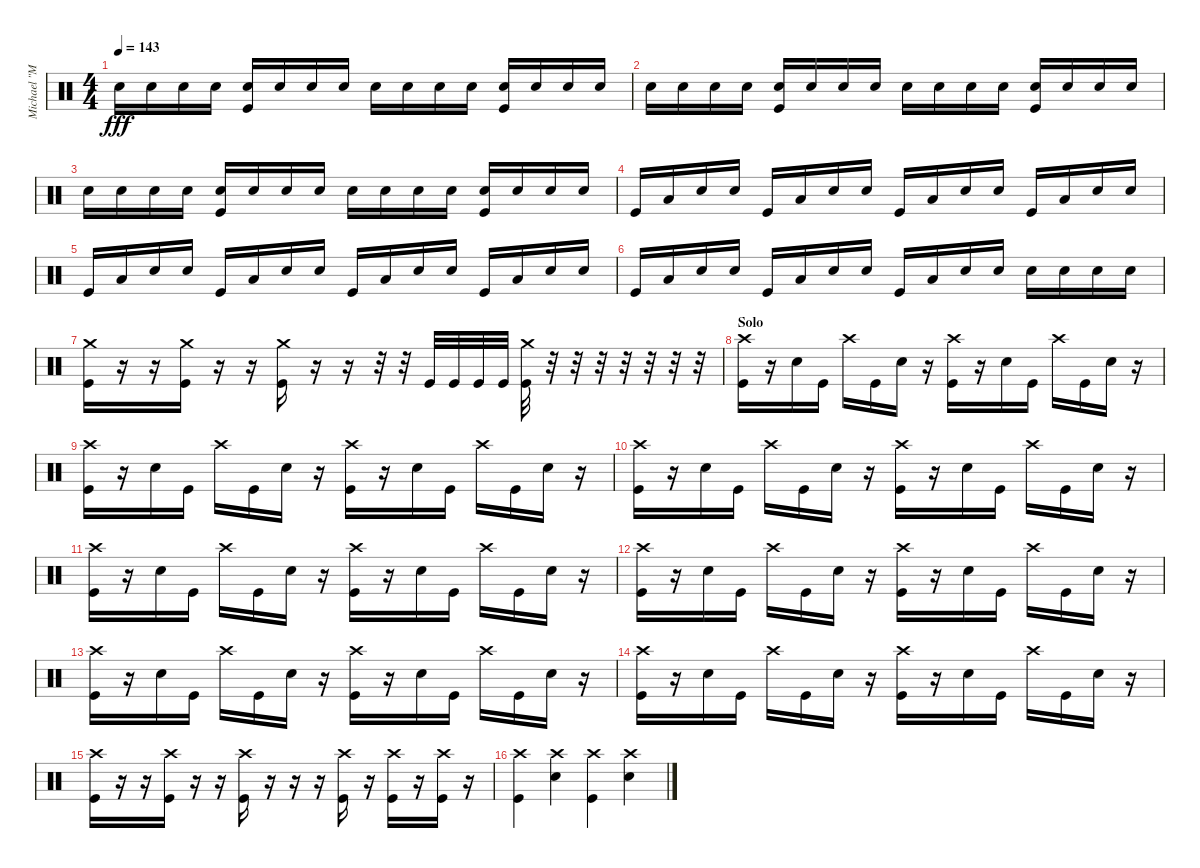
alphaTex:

\track ("Michael \"Moose\" Thomas" "Michael \"M") {instrument percussion}
\staff {score}
\articulation defaults
\ts (4 4)
\tempo 143
\clef neutral
\ks c "Snare (hit) 2".16{dy fff} "Snare (hit) 2".16 "Snare (hit) 2".16 "Snare (hit) 2".16
("Snare (hit) 2" "Kick (hit)").16 "Snare (hit) 2".16 "Snare (hit) 2".16 "Snare (hit) 2".16 "Snare (hit) 2".16 "Snare (hit) 2".16 "Snare (hit) 2".16 "Snare (hit) 2".16 ("Snare (hit) 2" "Kick (hit)").16 "Snare (hit) 2".16 "Snare (hit) 2".16 "Snare (hit) 2".16 |
"Snare (hit) 2".16 "Snare (hit) 2".16 "Snare (hit) 2".16 "Snare (hit) 2".16 ("Snare (hit) 2" "Kick (hit)").16 "Snare (hit) 2".16 "Snare (hit) 2".16 "Snare (hit) 2".16 "Snare (hit) 2".16 "Snare (hit) 2".16 "Snare (hit) 2".16 "Snare (hit) 2".16 ("Snare (hit) 2" "Kick (hit)").16 "Snare (hit) 2".16 "Snare (hit) 2".16 "Snare (hit) 2".16 |
"Snare (hit) 2".16 "Snare (hit) 2".16 "Snare (hit) 2".16 "Snare (hit) 2".16 ("Snare (hit) 2" "Kick (hit)").16 "Snare (hit) 2".16 "Snare (hit) 2".16 "Snare (hit) 2".16 "Snare (hit) 2".16 "Snare (hit) 2".16 "Snare (hit) 2".16 "Snare (hit) 2".16 ("Snare (hit) 2" "Kick (hit)").16 "Snare (hit) 2".16 "Snare (hit) 2".16 "Snare (hit) 2".16 |
"Kick (hit)".16 "Low Floor Tom (hit)".16 "Snare (hit) 2".16 "Snare (hit) 2".16 "Kick (hit)".16 "Low Floor Tom (hit)".16 "Snare (hit) 2".16 "Snare (hit) 2".16 "Kick (hit)".16 "Low Floor Tom (hit)".16 "Snare (hit) 2".16 "Snare (hit) 2".16 "Kick (hit)".16 "Low Floor Tom (hit)".16 "Snare (hit) 2".16 "Snare (hit) 2".16 |
"Kick (hit)".16 "Low Floor Tom (hit)".16 "Snare (hit) 2".16 "Snare (hit) 2".16 "Kick (hit)".16 "Low Floor Tom (hit)".16 "Snare (hit) 2".16 "Snare (hit) 2".16 "Kick (hit)".16 "Low Floor Tom (hit)".16 "Snare (hit) 2".16 "Snare (hit) 2".16 "Kick (hit)".16 "Low Floor Tom (hit)".16 "Snare (hit) 2".16 "Snare (hit) 2".16 |
"Kick (hit)".16 "Low Floor Tom (hit)".16 "Snare (hit) 2".16 "Snare (hit) 2".16 "Kick (hit)".16 "Low Floor Tom (hit)".16 "Snare (hit) 2".16 "Snare (hit) 2".16 "Kick (hit)".16 "Low Floor Tom (hit)".16 "Snare (hit) 2".16 "Snare (hit) 2".16 "Snare (hit) 2".16 "Snare (hit) 2".16 "Snare (hit) 2".16 "Snare (hit) 2".16 |
("Kick (hit)" "Crash medium (hit)").16 r.16 r.16 ("Kick (hit)" "Crash medium (hit)").16 r.16 r.16 ("Kick (hit)" "Crash medium (hit)").16 r.16 r.16 r.32 r.32 "Kick (hit)".32 "Kick (hit)".32 "Kick (hit)".32 "Kick (hit)".32 ("Kick (hit)" "Crash medium (hit)").32 r.32 r.32 r.32 r.32 r.32 r.32 r.32 |
\section ("" "Solo")
("Kick (hit)" "Crash high (hit)").16 r.16 "Snare (hit) 2".16 "Kick (hit)".16 "Crash high (hit)".16 "Kick (hit)".16 "Snare (hit) 2".16 r.16 ("Kick (hit)" "Crash high (hit)").16 r.16 "Snare (hit) 2".16 "Kick (hit)".16 "Crash high (hit)".16 "Kick (hit)".16 "Snare (hit) 2".16 r.16 |
("Kick (hit)" "Crash high (hit)").16 r.16 "Snare (hit) 2".16 "Kick (hit)".16 "Crash high (hit)".16 "Kick (hit)".16 "Snare (hit) 2".16 r.16 ("Kick (hit)" "Crash high (hit)").16 r.16 "Snare (hit) 2".16 "Kick (hit)".16 "Crash high (hit)".16 "Kick (hit)".16 "Snare (hit) 2".16 r.16 |
("Kick (hit)" "Crash high (hit)").16 r.16 "Snare (hit) 2".16 "Kick (hit)".16 "Crash high (hit)".16 "Kick (hit)".16 "Snare (hit) 2".16 r.16 ("Kick (hit)" "Crash high (hit)").16 r.16 "Snare (hit) 2".16 "Kick (hit)".16 "Crash high (hit)".16 "Kick (hit)".16 "Snare (hit) 2".16 r.16 |
("Kick (hit)" "Crash high (hit)").16 r.16 "Snare (hit) 2".16 "Kick (hit)".16 "Crash high (hit)".16 "Kick (hit)".16 "Snare (hit) 2".16 r.16 ("Kick (hit)" "Crash high (hit)").16 r.16 "Snare (hit) 2".16 "Kick (hit)".16 "Crash high (hit)".16 "Kick (hit)".16 "Snare (hit) 2".16 r.16 |
("Kick (hit)" "Crash high (hit)").16 r.16 "Snare (hit) 2".16 "Kick (hit)".16 "Crash high (hit)".16 "Kick (hit)".16 "Snare (hit) 2".16 r.16 ("Kick (hit)" "Crash high (hit)").16 r.16 "Snare (hit) 2".16 "Kick (hit)".16 "Crash high (hit)".16 "Kick (hit)".16 "Snare (hit) 2".16 r.16 |
("Kick (hit)" "Crash high (hit)").16 r.16 "Snare (hit) 2".16 "Kick (hit)".16 "Crash high (hit)".16 "Kick (hit)".16 "Snare (hit) 2".16 r.16 ("Kick (hit)" "Crash high (hit)").16 r.16 "Snare (hit) 2".16 "Kick (hit)".16 "Crash high (hit)".16 "Kick (hit)".16 "Snare (hit) 2".16 r.16 |
("Kick (hit)" "Crash high (hit)").16 r.16 "Snare (hit) 2".16 "Kick (hit)".16 "Crash high (hit)".16 "Kick (hit)".16 "Snare (hit) 2".16 r.16 ("Kick (hit)" "Crash high (hit)").16 r.16 "Snare (hit) 2".16 "Kick (hit)".16 "Crash high (hit)".16 "Kick (hit)".16 "Snare (hit) 2".16 r.16 |
("Kick (hit)" "Crash high (hit)").16 r.16 r.16 ("Kick (hit)" "Crash high (hit)").16 r.16 r.16 ("Kick (hit)" "Crash high (hit)").16 r.16 r.16 r.16 ("Kick (hit)" "Crash high (hit)").16 r.16 ("Kick (hit)" "Crash high (hit)").16 r.16 ("Kick (hit)" "Crash high (hit)").16 r.16 |
("Kick (hit)" "Crash high (hit)").4 ("Snare (hit) 2" "Crash high (hit)").4 ("Kick (hit)" "Crash high (hit)").4 ("Snare (hit) 2" "Crash high (hit)").4
